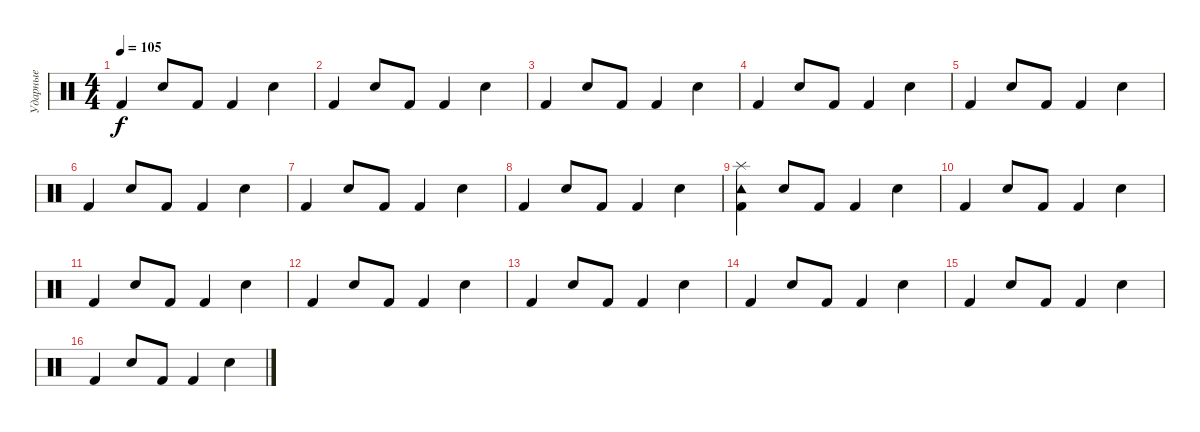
\track ("Ударные" "Ударные") {instrument percussion}
\staff {score}
\articulation defaults
\ts (4 4)
\tempo 105
\clef neutral
\ks c "Kick (hit) 2".4{dy f} "Snare (hit) 2".8 "Kick (hit) 2".8 "Kick (hit) 2".4 "Snare (hit) 2".4
|
"Kick (hit) 2".4 "Snare (hit) 2".8 "Kick (hit) 2".8 "Kick (hit) 2".4 "Snare (hit) 2".4 |
"Kick (hit) 2".4 "Snare (hit) 2".8 "Kick (hit) 2".8 "Kick (hit) 2".4 "Snare (hit) 2".4 |
"Kick (hit) 2".4 "Snare (hit) 2".8 "Kick (hit) 2".8 "Kick (hit) 2".4 "Snare (hit) 2".4 |
"Kick (hit) 2".4 "Snare (hit) 2".8 "Kick (hit) 2".8 "Kick (hit) 2".4 "Snare (hit) 2".4 |
"Kick (hit) 2".4 "Snare (hit) 2".8 "Kick (hit) 2".8 "Kick (hit) 2".4 "Snare (hit) 2".4 |
"Kick (hit) 2".4 "Snare (hit) 2".8 "Kick (hit) 2".8 "Kick (hit) 2".4 "Snare (hit) 2".4 |
"Kick (hit) 2".4 "Snare (hit) 2".8 "Kick (hit) 2".8 "Kick (hit) 2".4 "Snare (hit) 2".4 |
("Tambourine (hit)" "Kick (hit) 2" "Splash (hit)").4 "Snare (hit) 2".8 "Kick (hit) 2".8 "Kick (hit) 2".4 "Snare (hit) 2".4 |
"Kick (hit) 2".4 "Snare (hit) 2".8 "Kick (hit) 2".8 "Kick (hit) 2".4 "Snare (hit) 2".4 |
"Kick (hit) 2".4 "Snare (hit) 2".8 "Kick (hit) 2".8 "Kick (hit) 2".4 "Snare (hit) 2".4 |
"Kick (hit) 2".4 "Snare (hit) 2".8 "Kick (hit) 2".8 "Kick (hit) 2".4 "Snare (hit) 2".4 |
"Kick (hit) 2".4 "Snare (hit) 2".8 "Kick (hit) 2".8 "Kick (hit) 2".4 "Snare (hit) 2".4 |
"Kick (hit) 2".4 "Snare (hit) 2".8 "Kick (hit) 2".8 "Kick (hit) 2".4 "Snare (hit) 2".4 |
"Kick (hit) 2".4 "Snare (hit) 2".8 "Kick (hit) 2".8 "Kick (hit) 2".4 "Snare (hit) 2".4 |
"Kick (hit) 2".4 "Snare (hit) 2".8 "Kick (hit) 2".8 "Kick (hit) 2".4 "Snare (hit) 2".4
